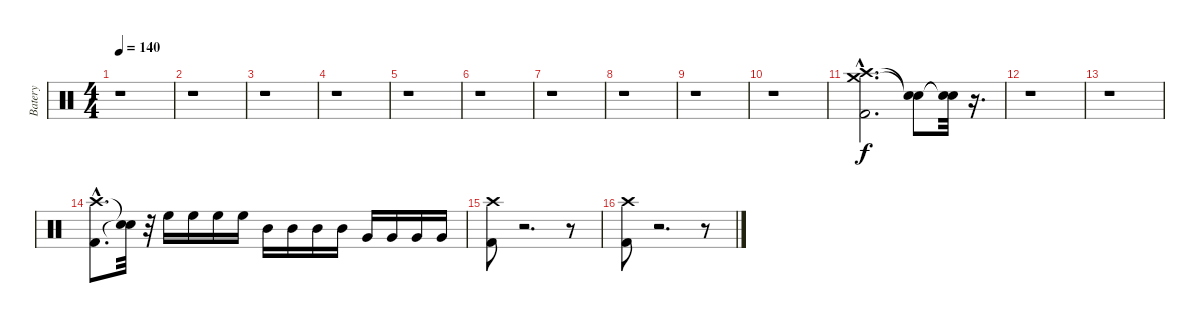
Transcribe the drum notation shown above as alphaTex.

\track ("Batery" "Batery") {instrument percussion}
\staff {score}
\articulation defaults
\ts (4 4)
\tempo 140
\clef neutral
\ks c
r.1{dy f} |
r.1 |
r.1 |
r.1 |
r.1 |
r.1 |
r.1 |
r.1 |
r.1 |
r.1 |
("Crash high (hit)"{hac} "Crash medium (hit)"{hac} "Kick (hit) 2"{hac}).2{d volume 16} ("Snare (hit)"{t} "Snare (hit)"{t}).8 ("Snare (hit)"{t} "Snare (hit)"{t}).32 r.16{d} |
r.1 |
r.1 |
("Crash high (hit)"{hac} "Kick (hit) 2"{hac}).8{d} ("Snare (hit)"{t} "Snare (hit)"{t}).32 r.32 "High Floor Tom (hit)".16 "High Floor Tom (hit)".16 "High Floor Tom (hit)".16 "High Floor Tom (hit)".16 "Mid Tom (hit)".16 "Mid Tom (hit)".16 "Mid Tom (hit)".16 "Mid Tom (hit)".16 "Very Low Tom (hit)".16 "Very Low Tom (hit)".16 "Very Low Tom (hit)".16 "Very Low Tom (hit)".16 |
("Kick (hit) 2" "Crash high (hit)").8 r.2{d} r.8 |
("Kick (hit) 2" "Crash high (hit)").8 r.2{d} r.8
